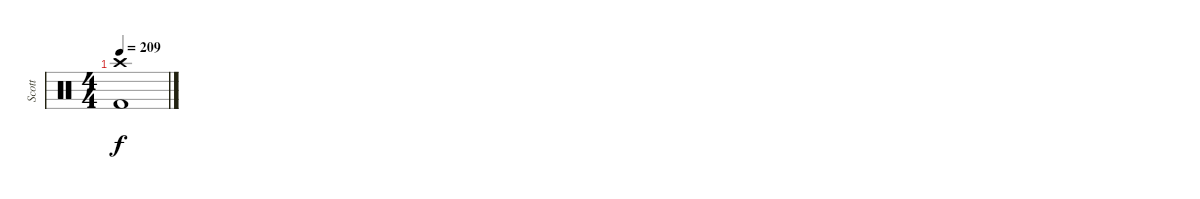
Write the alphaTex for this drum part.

\track ("Scott" "Scott") {instrument percussion}
\staff {score}
\articulation defaults
\ts (4 4)
\tempo 209
\clef neutral
\ks c
("Crash high (hit)" "Kick (hit) 2").1{dy f}
